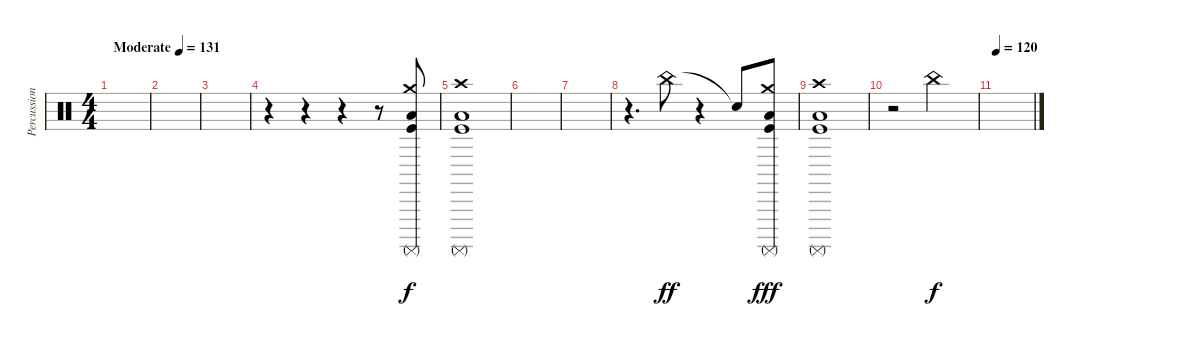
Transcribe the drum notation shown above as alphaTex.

\track ("Percussion" "Percussion") {instrument percussion}
\staff {score}
\articulation defaults
\ts (4 4)
\tempo (131 "Moderate")
\clef neutral
\ks c
|
|
|
r.4 r.4 r.4 r.8 ("Low Floor Tom (hit)" "Kick (hit)" "Crash medium (hit)" "Surdo (mute)").8 |
("Low Floor Tom (hit)" "Kick (hit)" "Crash high (hit)" "Surdo (mute)").1 |
|
|
r.4{d} "China (hit)".8{dy ff} r.4 "Snare (hit)"{t}.8 ("Low Floor Tom (hit)" "Kick (hit)" "Crash medium (hit)" "Surdo (mute)").8{dy fff} |
("Low Floor Tom (hit)" "Kick (hit)" "Crash high (hit)" "Surdo (mute)").1 |
r.2 "China (hit)".2{dy f} |
\tempo 120
